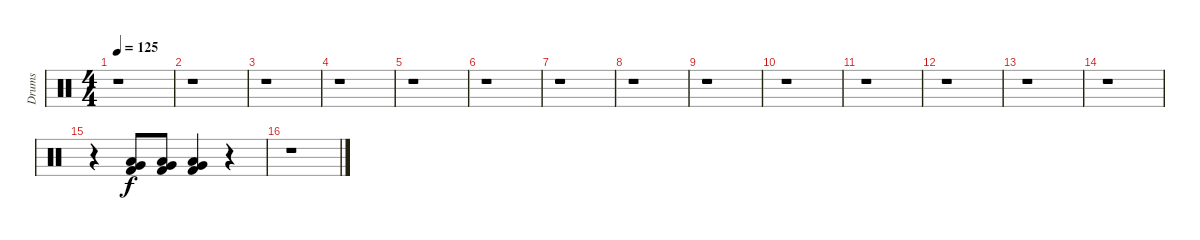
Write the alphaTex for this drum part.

\track ("Drums" "Drums") {instrument percussion}
\staff {score}
\articulation defaults
\ts (4 4)
\tempo 125
\clef neutral
\ks c
r.1{dy f} |
r.1 |
r.1 |
r.1 |
r.1 |
r.1 |
r.1 |
r.1 |
r.1 |
r.1 |
r.1 |
r.1 |
r.1 |
r.1 |
r.4 ("Kick (hit) 2" "Very Low Tom (hit)" "Low Floor Tom (hit)").8 ("Kick (hit) 2" "Very Low Tom (hit)" "Low Floor Tom (hit)").8 ("Kick (hit) 2" "Very Low Tom (hit)" "Low Floor Tom (hit)").4 r.4 |
r.1
